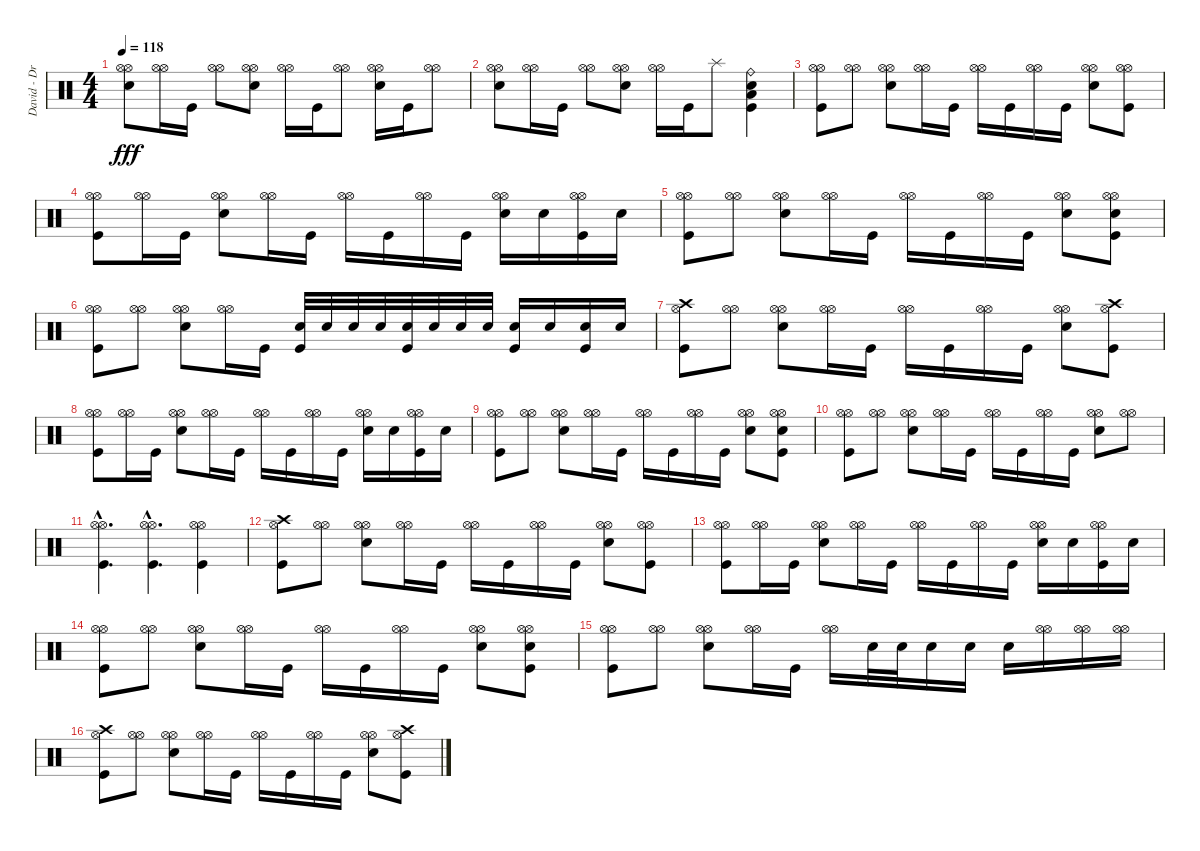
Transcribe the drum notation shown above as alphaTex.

\track ("David - Drums" "David - Dr") {instrument percussion}
\staff {score}
\articulation defaults
\ts (4 4)
\tempo 118
\clef neutral
\ks c
("Hi-Hat (open)" "Hi-Hat (open)" "Snare (hit) 2").8{dy fff} ("Hi-Hat (open)" "Hi-Hat (open)").16 "Kick (hit)".16 ("Hi-Hat (open)" "Hi-Hat (open)").8 ("Hi-Hat (open)" "Hi-Hat (open)" "Snare (hit) 2").8 ("Hi-Hat (open)" "Hi-Hat (open)").16 "Kick (hit)".16 ("Hi-Hat (open)" "Hi-Hat (open)").8 ("Hi-Hat (open)" "Hi-Hat (open)" "Snare (hit) 2").16 "Kick (hit)".16 ("Hi-Hat (open)" "Hi-Hat (open)").8 |
("Hi-Hat (open)" "Hi-Hat (open)" "Snare (hit) 2").8 ("Hi-Hat (open)" "Hi-Hat (open)").16 "Kick (hit)".16 ("Hi-Hat (open)" "Hi-Hat (open)").8 ("Hi-Hat (open)" "Hi-Hat (open)" "Snare (hit) 2").8 ("Hi-Hat (open)" "Hi-Hat (open)").16 "Kick (hit)".16 "Splash (hit)".8 ("Ride (bell)" "Low Floor Tom (hit)" "Snare (hit) 2" "Kick (hit)").4 |
("Hi-Hat (open)" "Hi-Hat (open)" "Kick (hit)").8 ("Hi-Hat (open)" "Hi-Hat (open)").8 ("Hi-Hat (open)" "Hi-Hat (open)" "Snare (hit) 2").8 ("Hi-Hat (open)" "Hi-Hat (open)").16 "Kick (hit)".16 ("Hi-Hat (open)" "Hi-Hat (open)").16 "Kick (hit)".16 ("Hi-Hat (open)" "Hi-Hat (open)").16 "Kick (hit)".16 ("Hi-Hat (open)" "Hi-Hat (open)" "Snare (hit) 2").8 ("Hi-Hat (open)" "Hi-Hat (open)" "Kick (hit)").8 |
("Hi-Hat (open)" "Hi-Hat (open)" "Kick (hit)").8 ("Hi-Hat (open)" "Hi-Hat (open)").16 "Kick (hit)".16 ("Hi-Hat (open)" "Hi-Hat (open)" "Snare (hit) 2").8 ("Hi-Hat (open)" "Hi-Hat (open)").16 "Kick (hit)".16 ("Hi-Hat (open)" "Hi-Hat (open)").16 "Kick (hit)".16 ("Hi-Hat (open)" "Hi-Hat (open)").16 "Kick (hit)".16 ("Hi-Hat (open)" "Hi-Hat (open)" "Snare (hit) 2").16 "Snare (hit) 2".16 ("Hi-Hat (open)" "Hi-Hat (open)" "Kick (hit)").16 "Snare (hit) 2".16 |
("Hi-Hat (open)" "Hi-Hat (open)" "Kick (hit)").8 ("Hi-Hat (open)" "Hi-Hat (open)").8 ("Hi-Hat (open)" "Hi-Hat (open)" "Snare (hit) 2").8 ("Hi-Hat (open)" "Hi-Hat (open)").16 "Kick (hit)".16 ("Hi-Hat (open)" "Hi-Hat (open)").16 "Kick (hit)".16 ("Hi-Hat (open)" "Hi-Hat (open)").16 "Kick (hit)".16 ("Hi-Hat (open)" "Hi-Hat (open)" "Snare (hit) 2").8 ("Hi-Hat (open)" "Hi-Hat (open)" "Snare (hit) 2" "Kick (hit)").8 |
("Hi-Hat (open)" "Hi-Hat (open)" "Kick (hit)").8 ("Hi-Hat (open)" "Hi-Hat (open)").8 ("Hi-Hat (open)" "Hi-Hat (open)" "Snare (hit) 2").8 ("Hi-Hat (open)" "Hi-Hat (open)").16 "Kick (hit)".16 ("Snare (hit) 2" "Kick (hit)").32 "Snare (hit) 2".32 "Snare (hit) 2".32 "Snare (hit) 2".32 ("Snare (hit) 2" "Kick (hit)").32 "Snare (hit) 2".32 "Snare (hit) 2".32 "Snare (hit) 2".32 ("Snare (hit) 2" "Kick (hit)").16 "Snare (hit) 2".16 ("Snare (hit) 2" "Kick (hit)").16 "Snare (hit) 2".16 |
("Hi-Hat (open)" "Crash high (hit)" "Kick (hit)").8 ("Hi-Hat (open)" "Hi-Hat (open)").8 ("Hi-Hat (open)" "Hi-Hat (open)" "Snare (hit) 2").8 ("Hi-Hat (open)" "Hi-Hat (open)").16 "Kick (hit)".16 ("Hi-Hat (open)" "Hi-Hat (open)").16 "Kick (hit)".16 ("Hi-Hat (open)" "Hi-Hat (open)").16 "Kick (hit)".16 ("Hi-Hat (open)" "Hi-Hat (open)" "Snare (hit) 2").8 ("Hi-Hat (open)" "Crash high (hit)" "Kick (hit)").8 |
("Hi-Hat (open)" "Hi-Hat (open)" "Kick (hit)").8 ("Hi-Hat (open)" "Hi-Hat (open)").16 "Kick (hit)".16 ("Hi-Hat (open)" "Hi-Hat (open)" "Snare (hit) 2").8 ("Hi-Hat (open)" "Hi-Hat (open)").16 "Kick (hit)".16 ("Hi-Hat (open)" "Hi-Hat (open)").16 "Kick (hit)".16 ("Hi-Hat (open)" "Hi-Hat (open)").16 "Kick (hit)".16 ("Hi-Hat (open)" "Hi-Hat (open)" "Snare (hit) 2").16 "Snare (hit) 2".16 ("Hi-Hat (open)" "Hi-Hat (open)" "Kick (hit)").16 "Snare (hit) 2".16 |
("Hi-Hat (open)" "Hi-Hat (open)" "Kick (hit)").8 ("Hi-Hat (open)" "Hi-Hat (open)").8 ("Hi-Hat (open)" "Hi-Hat (open)" "Snare (hit) 2").8 ("Hi-Hat (open)" "Hi-Hat (open)").16 "Kick (hit)".16 ("Hi-Hat (open)" "Hi-Hat (open)").16 "Kick (hit)".16 ("Hi-Hat (open)" "Hi-Hat (open)").16 "Kick (hit)".16 ("Hi-Hat (open)" "Hi-Hat (open)" "Snare (hit) 2").8 ("Hi-Hat (open)" "Hi-Hat (open)" "Snare (hit) 2" "Kick (hit)").8 |
("Hi-Hat (open)" "Hi-Hat (open)" "Kick (hit)").8 ("Hi-Hat (open)" "Hi-Hat (open)").8 ("Hi-Hat (open)" "Hi-Hat (open)" "Snare (hit) 2").8 ("Hi-Hat (open)" "Hi-Hat (open)").16 "Kick (hit)".16 ("Hi-Hat (open)" "Hi-Hat (open)").16 "Kick (hit)".16 ("Hi-Hat (open)" "Hi-Hat (open)").16 "Kick (hit)".16 ("Hi-Hat (open)" "Hi-Hat (open)" "Snare (hit) 2").8 ("Hi-Hat (open)" "Hi-Hat (open)").8 |
("Hi-Hat (open)"{hac} "Hi-Hat (open)"{hac} "Kick (hit)"{hac}).4{d} ("Hi-Hat (open)"{hac} "Hi-Hat (open)"{hac} "Kick (hit)"{hac}).4{d} ("Hi-Hat (open)" "Hi-Hat (open)" "Kick (hit)").4 |
("Hi-Hat (open)" "Crash high (hit)" "Kick (hit)").8 ("Hi-Hat (open)" "Hi-Hat (open)").8 ("Hi-Hat (open)" "Hi-Hat (open)" "Snare (hit) 2").8 ("Hi-Hat (open)" "Hi-Hat (open)").16 "Kick (hit)".16 ("Hi-Hat (open)" "Hi-Hat (open)").16 "Kick (hit)".16 ("Hi-Hat (open)" "Hi-Hat (open)").16 "Kick (hit)".16 ("Hi-Hat (open)" "Hi-Hat (open)" "Snare (hit) 2").8 ("Hi-Hat (open)" "Hi-Hat (open)" "Kick (hit)").8 |
("Hi-Hat (open)" "Hi-Hat (open)" "Kick (hit)").8 ("Hi-Hat (open)" "Hi-Hat (open)").16 "Kick (hit)".16 ("Hi-Hat (open)" "Hi-Hat (open)" "Snare (hit) 2").8 ("Hi-Hat (open)" "Hi-Hat (open)").16 "Kick (hit)".16 ("Hi-Hat (open)" "Hi-Hat (open)").16 "Kick (hit)".16 ("Hi-Hat (open)" "Hi-Hat (open)").16 "Kick (hit)".16 ("Hi-Hat (open)" "Hi-Hat (open)" "Snare (hit) 2").16 "Snare (hit) 2".16 ("Hi-Hat (open)" "Hi-Hat (open)" "Kick (hit)").16 "Snare (hit) 2".16 |
("Hi-Hat (open)" "Hi-Hat (open)" "Kick (hit)").8 ("Hi-Hat (open)" "Hi-Hat (open)").8 ("Hi-Hat (open)" "Hi-Hat (open)" "Snare (hit) 2").8 ("Hi-Hat (open)" "Hi-Hat (open)").16 "Kick (hit)".16 ("Hi-Hat (open)" "Hi-Hat (open)").16 "Kick (hit)".16 ("Hi-Hat (open)" "Hi-Hat (open)").16 "Kick (hit)".16 ("Hi-Hat (open)" "Hi-Hat (open)" "Snare (hit) 2").8 ("Hi-Hat (open)" "Hi-Hat (open)" "Snare (hit) 2" "Kick (hit)").8 |
("Hi-Hat (open)" "Hi-Hat (open)" "Kick (hit)").8 ("Hi-Hat (open)" "Hi-Hat (open)").8 ("Hi-Hat (open)" "Hi-Hat (open)" "Snare (hit) 2").8 ("Hi-Hat (open)" "Hi-Hat (open)").16 "Kick (hit)".16 ("Hi-Hat (open)" "Hi-Hat (open)").16 "Snare (hit) 2".32 "Snare (hit) 2".32 "Snare (hit) 2".16 "Snare (hit) 2".16 "Snare (hit) 2".16 ("Hi-Hat (open)" "Hi-Hat (open)").16 ("Hi-Hat (open)" "Hi-Hat (open)").16 ("Hi-Hat (open)" "Hi-Hat (open)").16 |
("Hi-Hat (open)" "Crash high (hit)" "Kick (hit)").8 ("Hi-Hat (open)" "Hi-Hat (open)").8 ("Hi-Hat (open)" "Hi-Hat (open)" "Snare (hit) 2").8 ("Hi-Hat (open)" "Hi-Hat (open)").16 "Kick (hit)".16 ("Hi-Hat (open)" "Hi-Hat (open)").16 "Kick (hit)".16 ("Hi-Hat (open)" "Hi-Hat (open)").16 "Kick (hit)".16 ("Hi-Hat (open)" "Hi-Hat (open)" "Snare (hit) 2").8 ("Hi-Hat (open)" "Crash high (hit)" "Kick (hit)").8
